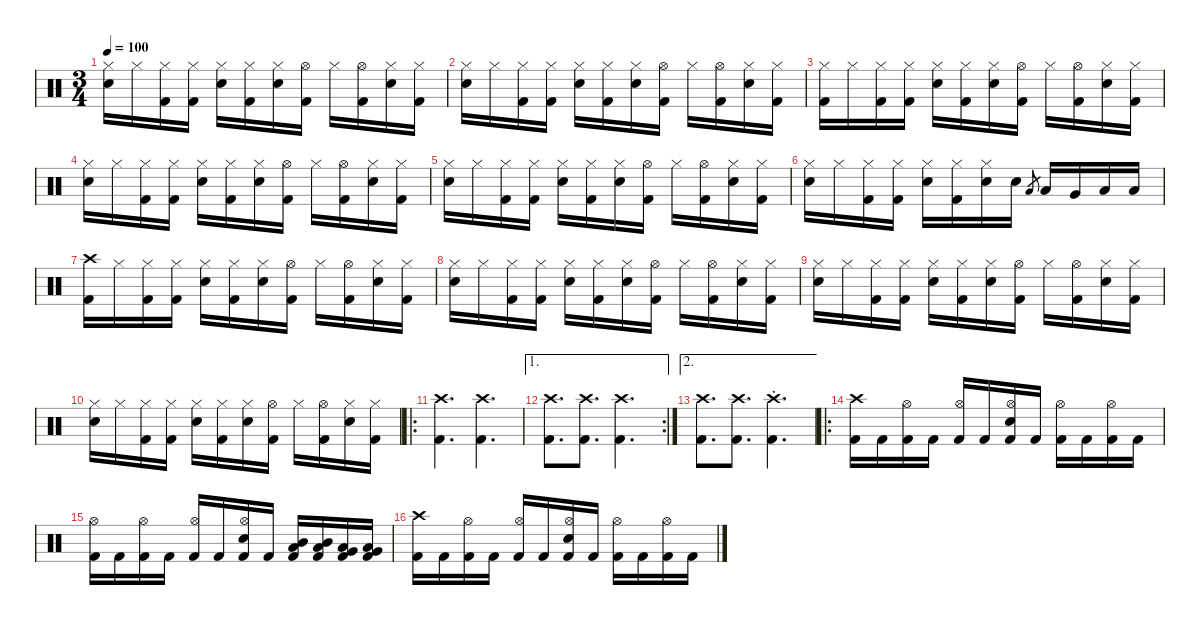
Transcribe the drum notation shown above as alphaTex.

\defaultSystemsLayout 4
\hideDynamics
\bracketExtendMode nobrackets
\singleTrackTrackNamePolicy hidden
\multiTrackTrackNamePolicy hidden
\firstSystemTrackNameMode fullname
\firstSystemTrackNameOrientation horizontal
\otherSystemsTrackNameOrientation horizontal
\track ("Drums" "drm.") {instrument percussion}
\staff {score}
\articulation defaults
\ts (3 4)
\tempo 100
\clef neutral
\ks c
("Hi-Hat (closed)" "Snare (hit) 2").16{dy f beam Down} "Hi-Hat (closed)".16{beam Down} ("Hi-Hat (closed)" "Kick (hit) 2").16{beam Down} ("Hi-Hat (closed)" "Kick (hit) 2").16{beam Down} ("Hi-Hat (closed)" "Snare (hit) 2").16{beam Down} ("Hi-Hat (closed)" "Kick (hit) 2").16{beam Down} ("Hi-Hat (closed)" "Snare (hit) 2").16{beam Down} ("Hi-Hat (open)" "Kick (hit) 2").16{dy ff beam Down} "Hi-Hat (closed)".16{dy f beam Down} ("Hi-Hat (open)" "Kick (hit) 2").16{dy ff beam Down} ("Hi-Hat (closed)" "Snare (hit) 2").16{dy f beam Down} ("Hi-Hat (closed)" "Kick (hit) 2").16{beam Down} |
("Hi-Hat (closed)" "Snare (hit) 2").16{beam Down} "Hi-Hat (closed)".16{beam Down} ("Hi-Hat (closed)" "Kick (hit) 2").16{beam Down} ("Hi-Hat (closed)" "Kick (hit) 2").16{beam Down} ("Hi-Hat (closed)" "Snare (hit) 2").16{beam Down} ("Hi-Hat (closed)" "Kick (hit) 2").16{beam Down} ("Hi-Hat (closed)" "Snare (hit) 2").16{beam Down} ("Hi-Hat (open)" "Kick (hit) 2").16{dy ff beam Down} "Hi-Hat (closed)".16{dy f beam Down} ("Hi-Hat (open)" "Kick (hit) 2").16{dy ff beam Down} ("Hi-Hat (closed)" "Snare (hit) 2").16{dy f beam Down} ("Hi-Hat (closed)" "Kick (hit) 2").16{beam Down} |
("Hi-Hat (closed)" "Kick (hit) 2").16{beam Down} "Hi-Hat (closed)".16{beam Down} ("Hi-Hat (closed)" "Kick (hit) 2").16{beam Down} ("Hi-Hat (closed)" "Kick (hit) 2").16{beam Down} ("Hi-Hat (closed)" "Snare (hit) 2").16{beam Down} ("Hi-Hat (closed)" "Kick (hit) 2").16{beam Down} ("Hi-Hat (closed)" "Snare (hit) 2").16{beam Down} ("Hi-Hat (open)" "Kick (hit) 2").16{dy ff beam Down} "Hi-Hat (closed)".16{dy f beam Down} ("Hi-Hat (open)" "Kick (hit) 2").16{dy ff beam Down} ("Hi-Hat (closed)" "Snare (hit) 2").16{dy f beam Down} ("Hi-Hat (closed)" "Kick (hit) 2").16{beam Down} |
("Hi-Hat (closed)" "Snare (hit) 2").16{beam Down} "Hi-Hat (closed)".16{beam Down} ("Hi-Hat (closed)" "Kick (hit) 2").16{beam Down} ("Hi-Hat (closed)" "Kick (hit) 2").16{beam Down} ("Hi-Hat (closed)" "Snare (hit) 2").16{beam Down} ("Hi-Hat (closed)" "Kick (hit) 2").16{beam Down} ("Hi-Hat (closed)" "Snare (hit) 2").16{beam Down} ("Hi-Hat (open)" "Kick (hit) 2").16{dy ff beam Down} "Hi-Hat (closed)".16{dy f beam Down} ("Hi-Hat (open)" "Kick (hit) 2").16{dy ff beam Down} ("Hi-Hat (closed)" "Snare (hit) 2").16{dy f beam Down} ("Hi-Hat (closed)" "Kick (hit) 2").16{beam Down} |
("Hi-Hat (closed)" "Snare (hit) 2").16{beam Down} "Hi-Hat (closed)".16{beam Down} ("Hi-Hat (closed)" "Kick (hit) 2").16{beam Down} ("Hi-Hat (closed)" "Kick (hit) 2").16{beam Down} ("Hi-Hat (closed)" "Snare (hit) 2").16{beam Down} ("Hi-Hat (closed)" "Kick (hit) 2").16{beam Down} ("Hi-Hat (closed)" "Snare (hit) 2").16{beam Down} ("Hi-Hat (open)" "Kick (hit) 2").16{dy ff beam Down} "Hi-Hat (closed)".16{dy f beam Down} ("Hi-Hat (open)" "Kick (hit) 2").16{dy ff beam Down} ("Hi-Hat (closed)" "Snare (hit) 2").16{dy f beam Down} ("Hi-Hat (closed)" "Kick (hit) 2").16{beam Down} |
("Hi-Hat (closed)" "Snare (hit) 2").16{beam Down} "Hi-Hat (closed)".16{beam Down} ("Hi-Hat (closed)" "Kick (hit) 2").16{beam Down} ("Hi-Hat (closed)" "Kick (hit) 2").16{beam Down} ("Hi-Hat (closed)" "Snare (hit) 2").16{beam Down} ("Hi-Hat (closed)" "Kick (hit) 2").16{beam Down} ("Hi-Hat (closed)" "Snare (hit) 2").16{beam Down} "Snare (hit) 2".16{beam Down} "Low Tom (hit)".8{gr dy mf beam Up} "Low Tom (hit)".16{dy f beam Up} "Very Low Tom (hit)".16{beam Up} "Low Floor Tom (hit)".16{beam Up} "Low Floor Tom (hit)".16{beam Up} |
("Crash high (hit)" "Kick (hit) 2").16{beam Down} "Hi-Hat (closed)".16{beam Down} ("Hi-Hat (closed)" "Kick (hit) 2").16{beam Down} ("Hi-Hat (closed)" "Kick (hit) 2").16{beam Down} ("Hi-Hat (closed)" "Snare (hit) 2").16{beam Down} ("Hi-Hat (closed)" "Kick (hit) 2").16{beam Down} ("Hi-Hat (closed)" "Snare (hit) 2").16{beam Down} ("Hi-Hat (open)" "Kick (hit) 2").16{dy ff beam Down} "Hi-Hat (closed)".16{dy f beam Down} ("Hi-Hat (open)" "Kick (hit) 2").16{dy ff beam Down} ("Hi-Hat (closed)" "Snare (hit) 2").16{dy f beam Down} ("Hi-Hat (closed)" "Kick (hit) 2").16{beam Down} |
("Hi-Hat (closed)" "Snare (hit) 2").16{beam Down} "Hi-Hat (closed)".16{beam Down} ("Hi-Hat (closed)" "Kick (hit) 2").16{beam Down} ("Hi-Hat (closed)" "Kick (hit) 2").16{beam Down} ("Hi-Hat (closed)" "Snare (hit) 2").16{beam Down} ("Hi-Hat (closed)" "Kick (hit) 2").16{beam Down} ("Hi-Hat (closed)" "Snare (hit) 2").16{beam Down} ("Hi-Hat (open)" "Kick (hit) 2").16{dy ff beam Down} "Hi-Hat (closed)".16{dy f beam Down} ("Hi-Hat (open)" "Kick (hit) 2").16{dy ff beam Down} ("Hi-Hat (closed)" "Snare (hit) 2").16{dy f beam Down} ("Hi-Hat (closed)" "Kick (hit) 2").16{beam Down} |
("Hi-Hat (closed)" "Snare (hit) 2").16{beam Down} "Hi-Hat (closed)".16{beam Down} ("Hi-Hat (closed)" "Kick (hit) 2").16{beam Down} ("Hi-Hat (closed)" "Kick (hit) 2").16{beam Down} ("Hi-Hat (closed)" "Snare (hit) 2").16{beam Down} ("Hi-Hat (closed)" "Kick (hit) 2").16{beam Down} ("Hi-Hat (closed)" "Snare (hit) 2").16{beam Down} ("Hi-Hat (open)" "Kick (hit) 2").16{dy ff beam Down} "Hi-Hat (closed)".16{dy f beam Down} ("Hi-Hat (open)" "Kick (hit) 2").16{dy ff beam Down} ("Hi-Hat (closed)" "Snare (hit) 2").16{dy f beam Down} ("Hi-Hat (closed)" "Kick (hit) 2").16{beam Down} |
("Hi-Hat (closed)" "Snare (hit) 2").16{beam Down} "Hi-Hat (closed)".16{beam Down} ("Hi-Hat (closed)" "Kick (hit) 2").16{beam Down} ("Hi-Hat (closed)" "Kick (hit) 2").16{beam Down} ("Hi-Hat (closed)" "Snare (hit) 2").16{beam Down} ("Hi-Hat (closed)" "Kick (hit) 2").16{beam Down} ("Hi-Hat (closed)" "Snare (hit) 2").16{beam Down} ("Hi-Hat (open)" "Kick (hit) 2").16{dy ff beam Down} "Hi-Hat (closed)".16{dy f beam Down} ("Hi-Hat (open)" "Kick (hit) 2").16{dy ff beam Down} ("Hi-Hat (closed)" "Snare (hit) 2").16{dy f beam Down} ("Hi-Hat (closed)" "Kick (hit) 2").16{beam Down} |
\ro
("Crash high (hit)" "Kick (hit) 2").4{d beam Down} ("Crash high (hit)" "Kick (hit) 2").4{d beam Down} |
\ae 1
\rc 2
("Crash high (hit)" "Kick (hit) 2").8{d beam Down} ("Crash high (hit)" "Kick (hit) 2").8{d beam Down} ("Crash high (hit)" "Kick (hit) 2").4{d beam Down} |
\ae 2
("Crash high (hit)" "Kick (hit) 2").8{d beam Down} ("Crash high (hit)" "Kick (hit) 2").8{d beam Down} ("Crash high (hit)"{st} "Kick (hit) 2"{st}).4{d beam Down} |
\ro
("Crash high (hit)" "Kick (hit) 2").16{beam Down} "Kick (hit) 2".16{beam Down} ("Hi-Hat (open)" "Kick (hit) 2").16{dy mp beam Down} "Kick (hit) 2".16{dy f beam Down} ("Hi-Hat (open)" "Kick (hit) 2").16{dy mp beam Up} "Kick (hit) 2".16{dy f beam Up} ("Hi-Hat (open)" "Snare (hit) 2" "Kick (hit) 2").16{dy mp beam Up} "Kick (hit) 2".16{dy f beam Up} ("Hi-Hat (open)" "Kick (hit) 2").16{dy mp beam Down} "Kick (hit) 2".16{dy f beam Down} ("Hi-Hat (open)" "Kick (hit) 2").16{dy mp beam Down} "Kick (hit) 2".16{dy f beam Down} |
("Hi-Hat (open)" "Kick (hit) 2").16{dy mp beam Down} "Kick (hit) 2".16{dy f beam Down} ("Hi-Hat (open)" "Kick (hit) 2").16{dy mp beam Down} "Kick (hit) 2".16{dy f beam Down} ("Hi-Hat (open)" "Kick (hit) 2").16{dy mp beam Up} "Kick (hit) 2".16{dy f beam Up} ("Hi-Hat (open)" "Snare (hit) 2" "Kick (hit) 2").16{dy mp beam Up} "Kick (hit) 2".16{dy f beam Up} ("Mid Tom (hit)" "Low Tom (hit)" "Kick (hit) 2").16{beam Up} ("Mid Tom (hit)" "Low Tom (hit)" "Kick (hit) 2").16{beam Up} ("Low Tom (hit)" "Very Low Tom (hit)" "Kick (hit) 2").16{beam Up} ("Very Low Tom (hit)" "Low Floor Tom (hit)" "Kick (hit) 2").16{beam Up} |
("Crash high (hit)" "Kick (hit) 2").16{beam Down} "Kick (hit) 2".16{beam Down} ("Hi-Hat (open)" "Kick (hit) 2").16{dy mp beam Down} "Kick (hit) 2".16{dy f beam Down} ("Hi-Hat (open)" "Kick (hit) 2").16{dy mp beam Up} "Kick (hit) 2".16{dy f beam Up} ("Hi-Hat (open)" "Snare (hit) 2" "Kick (hit) 2").16{dy mp beam Up} "Kick (hit) 2".16{dy f beam Up} ("Hi-Hat (open)" "Kick (hit) 2").16{dy mp beam Down} "Kick (hit) 2".16{dy f beam Down} ("Hi-Hat (open)" "Kick (hit) 2").16{dy mp beam Down} "Kick (hit) 2".16{dy f beam Down}
